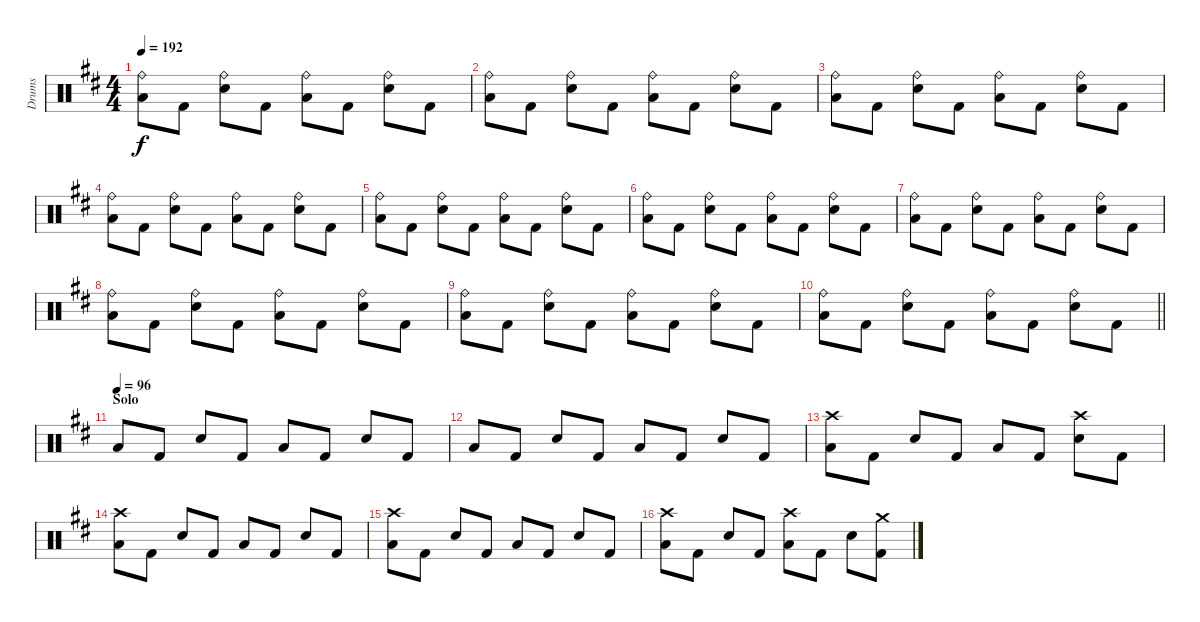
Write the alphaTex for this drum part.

\track ("Drums" "Drums") {instrument percussion}
\staff {score}
\articulation defaults
\ts (4 4)
\tempo 192
\clef neutral
\ks d
("Ride (bell)" "Low Tom (hit)").8{dy f} "Kick (hit) 2".8 ("Ride (bell)" "Snare (hit) 2").8 "Kick (hit) 2".8 ("Ride (bell)" "Low Tom (hit)").8 "Kick (hit) 2".8 ("Ride (bell)" "Snare (hit) 2").8 "Kick (hit) 2".8 |
("Ride (bell)" "Low Tom (hit)").8 "Kick (hit) 2".8 ("Ride (bell)" "Snare (hit) 2").8 "Kick (hit) 2".8 ("Ride (bell)" "Low Tom (hit)").8 "Kick (hit) 2".8 ("Ride (bell)" "Snare (hit) 2").8 "Kick (hit) 2".8 |
("Ride (bell)" "Low Tom (hit)").8 "Kick (hit) 2".8 ("Ride (bell)" "Snare (hit) 2").8 "Kick (hit) 2".8 ("Ride (bell)" "Low Tom (hit)").8 "Kick (hit) 2".8 ("Ride (bell)" "Snare (hit) 2").8 "Kick (hit) 2".8 |
("Ride (bell)" "Low Tom (hit)").8 "Kick (hit) 2".8 ("Ride (bell)" "Snare (hit) 2").8 "Kick (hit) 2".8 ("Ride (bell)" "Low Tom (hit)").8 "Kick (hit) 2".8 ("Ride (bell)" "Snare (hit) 2").8 "Kick (hit) 2".8 |
("Ride (bell)" "Low Tom (hit)").8 "Kick (hit) 2".8 ("Ride (bell)" "Snare (hit) 2").8 "Kick (hit) 2".8 ("Ride (bell)" "Low Tom (hit)").8 "Kick (hit) 2".8 ("Ride (bell)" "Snare (hit) 2").8 "Kick (hit) 2".8 |
("Ride (bell)" "Low Tom (hit)").8 "Kick (hit) 2".8 ("Ride (bell)" "Snare (hit) 2").8 "Kick (hit) 2".8 ("Ride (bell)" "Low Tom (hit)").8 "Kick (hit) 2".8 ("Ride (bell)" "Snare (hit) 2").8 "Kick (hit) 2".8 |
("Ride (bell)" "Low Tom (hit)").8 "Kick (hit) 2".8 ("Ride (bell)" "Snare (hit) 2").8 "Kick (hit) 2".8 ("Ride (bell)" "Low Tom (hit)").8 "Kick (hit) 2".8 ("Ride (bell)" "Snare (hit) 2").8 "Kick (hit) 2".8 |
("Ride (bell)" "Low Tom (hit)").8 "Kick (hit) 2".8 ("Ride (bell)" "Snare (hit) 2").8 "Kick (hit) 2".8 ("Ride (bell)" "Low Tom (hit)").8 "Kick (hit) 2".8 ("Ride (bell)" "Snare (hit) 2").8 "Kick (hit) 2".8 |
("Ride (bell)" "Low Tom (hit)").8 "Kick (hit) 2".8 ("Ride (bell)" "Snare (hit) 2").8 "Kick (hit) 2".8 ("Ride (bell)" "Low Tom (hit)").8 "Kick (hit) 2".8 ("Ride (bell)" "Snare (hit) 2").8 "Kick (hit) 2".8 |
\barLineRight lightlight
("Ride (bell)" "Low Tom (hit)").8 "Kick (hit) 2".8 ("Ride (bell)" "Snare (hit) 2").8 "Kick (hit) 2".8 ("Ride (bell)" "Low Tom (hit)").8 "Kick (hit) 2".8 ("Ride (bell)" "Snare (hit) 2").8 "Kick (hit) 2".8 |
\section ("" "Solo")
\tempo (96)
"Low Tom (hit)".8 "Kick (hit) 2".8 "Snare (hit) 2".8 "Kick (hit) 2".8 "Low Tom (hit)".8 "Kick (hit) 2".8 "Snare (hit) 2".8 "Kick (hit) 2".8 |
"Low Tom (hit)".8 "Kick (hit) 2".8 "Snare (hit) 2".8 "Kick (hit) 2".8 "Low Tom (hit)".8 "Kick (hit) 2".8 "Snare (hit) 2".8 "Kick (hit) 2".8 |
("Crash high (hit)" "Low Tom (hit)").8 "Kick (hit) 2".8 "Snare (hit) 2".8 "Kick (hit) 2".8 "Low Tom (hit)".8 "Kick (hit) 2".8 ("Crash high (hit)" "Snare (hit) 2").8 "Kick (hit) 2".8 |
("Crash high (hit)" "Low Tom (hit)").8 "Kick (hit) 2".8 "Snare (hit) 2".8 "Kick (hit) 2".8 "Low Tom (hit)".8 "Kick (hit) 2".8 "Snare (hit) 2".8 "Kick (hit) 2".8 |
("Crash high (hit)" "Low Tom (hit)").8 "Kick (hit) 2".8 "Snare (hit) 2".8 "Kick (hit) 2".8 "Low Tom (hit)".8 "Kick (hit) 2".8 "Snare (hit) 2".8 "Kick (hit) 2".8 |
("Crash high (hit)" "Low Tom (hit)").8 "Kick (hit) 2".8 "Snare (hit) 2".8 "Kick (hit) 2".8 ("Crash high (hit)" "Low Tom (hit)").8 "Kick (hit) 2".8 "Snare (hit) 2".8 ("Crash medium (hit)" "Kick (hit) 2").8
